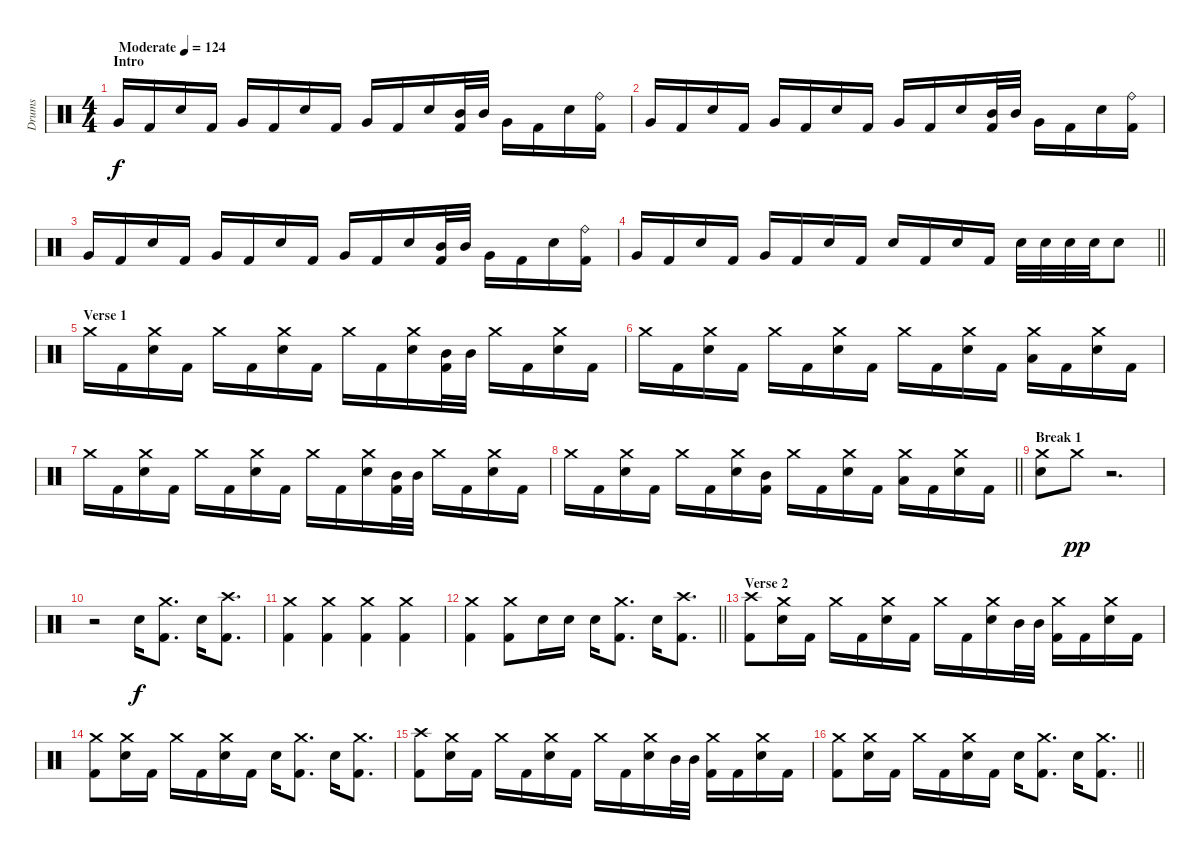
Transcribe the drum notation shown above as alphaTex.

\track ("Drums" "Drums") {instrument percussion}
\staff {score}
\articulation defaults
\ts (4 4)
\section ("" "Intro")
\tempo (124 "Moderate")
\clef neutral
\ks c "Very Low Tom (hit)".16{dy f} "Kick (hit) 2".16 "Electric Snare (hit)".16 "Kick (hit) 2".16 "Very Low Tom (hit)".16 "Kick (hit) 2".16 "Electric Snare (hit)".16 "Kick (hit) 2".16 "Very Low Tom (hit)".16 "Kick (hit) 2".16 "Electric Snare (hit)".16
("Mid Tom (hit)" "Kick (hit) 2").32 "Mid Tom (hit)".32 "Very Low Tom (hit)".16 "Kick (hit) 2".16 "Electric Snare (hit)".16 ("Ride (bell)" "Kick (hit) 2").16 |
"Very Low Tom (hit)".16 "Kick (hit) 2".16 "Electric Snare (hit)".16 "Kick (hit) 2".16 "Very Low Tom (hit)".16 "Kick (hit) 2".16 "Electric Snare (hit)".16 "Kick (hit) 2".16 "Very Low Tom (hit)".16 "Kick (hit) 2".16 "Electric Snare (hit)".16 ("Mid Tom (hit)" "Kick (hit) 2").32 "Mid Tom (hit)".32 "Very Low Tom (hit)".16 "Kick (hit) 2".16 "Electric Snare (hit)".16 ("Ride (bell)" "Kick (hit) 2").16 |
"Very Low Tom (hit)".16 "Kick (hit) 2".16 "Electric Snare (hit)".16 "Kick (hit) 2".16 "Very Low Tom (hit)".16 "Kick (hit) 2".16 "Electric Snare (hit)".16 "Kick (hit) 2".16 "Very Low Tom (hit)".16 "Kick (hit) 2".16 "Electric Snare (hit)".16 ("Mid Tom (hit)" "Kick (hit) 2").32 "Mid Tom (hit)".32 "Very Low Tom (hit)".16 "Kick (hit) 2".16 "Electric Snare (hit)".16 ("Ride (bell)" "Kick (hit) 2").16 |
\barLineRight lightlight "Very Low Tom (hit)".16 "Kick (hit) 2".16 "Electric Snare (hit)".16 "Kick (hit) 2".16 "Very Low Tom (hit)".16 "Kick (hit) 2".16 "Electric Snare (hit)".16 "Kick (hit) 2".16 "Electric Snare (hit)".16 "Kick (hit) 2".16 "Electric Snare (hit)".16 "Kick (hit) 2".16 "Electric Snare (hit)".32 "Electric Snare (hit)".32 "Electric Snare (hit)".32 "Electric Snare (hit)".32 "Electric Snare (hit)".8
|
\section ("" "Verse 1")
"Crash medium (hit)".16 "Kick (hit) 2".16 ("Crash medium (hit)" "Electric Snare (hit)").16 "Kick (hit) 2".16 "Crash medium (hit)".16 "Kick (hit) 2".16 ("Crash medium (hit)" "Electric Snare (hit)").16 "Kick (hit) 2".16 "Crash medium (hit)".16 "Kick (hit) 2".16 ("Crash medium (hit)" "Electric Snare (hit)").16 ("Mid Tom (hit)" "Kick (hit) 2").32 "Mid Tom (hit)".32 "Crash medium (hit)".16 "Kick (hit) 2".16 ("Crash medium (hit)" "Electric Snare (hit)").16 "Kick (hit) 2".16 |
"Crash medium (hit)".16 "Kick (hit) 2".16 ("Crash medium (hit)" "Electric Snare (hit)").16 "Kick (hit) 2".16 "Crash medium (hit)".16 "Kick (hit) 2".16 ("Crash medium (hit)" "Electric Snare (hit)").16 "Kick (hit) 2".16 "Crash medium (hit)".16 "Kick (hit) 2".16 ("Crash medium (hit)" "Electric Snare (hit)").16 "Kick (hit) 2".16 ("Crash medium (hit)" "Low Tom (hit)").16 "Kick (hit) 2".16 ("Crash medium (hit)" "Electric Snare (hit)").16 "Kick (hit) 2".16 |
"Crash medium (hit)".16 "Kick (hit) 2".16 ("Crash medium (hit)" "Electric Snare (hit)").16 "Kick (hit) 2".16 "Crash medium (hit)".16 "Kick (hit) 2".16 ("Crash medium (hit)" "Electric Snare (hit)").16 "Kick (hit) 2".16 "Crash medium (hit)".16 "Kick (hit) 2".16 ("Crash medium (hit)" "Electric Snare (hit)").16 ("Mid Tom (hit)" "Kick (hit) 2").32 "Mid Tom (hit)".32 "Crash medium (hit)".16 "Kick (hit) 2".16 ("Crash medium (hit)" "Electric Snare (hit)").16 "Kick (hit) 2".16 |
\barLineRight lightlight "Crash medium (hit)".16 "Kick (hit) 2".16
("Crash medium (hit)" "Electric Snare (hit)").16 "Kick (hit) 2".16 "Crash medium (hit)".16 "Kick (hit) 2".16 ("Crash medium (hit)" "Electric Snare (hit)").16 ("Mid Tom (hit)" "Kick (hit) 2").16 "Crash medium (hit)".16 "Kick (hit) 2".16 ("Crash medium (hit)" "Electric Snare (hit)").16 "Kick (hit) 2".16 ("Crash medium (hit)" "Low Tom (hit)").16 "Kick (hit) 2".16 ("Crash medium (hit)" "Electric Snare (hit)").16 "Kick (hit) 2".16 |
\section ("" "Break 1")
("Crash medium (hit)" "Electric Snare (hit)").8 "Crash medium (hit)".8{dy pp} r.2{d} |
r.2 "Electric Snare (hit)".16{dy f} ("Crash medium (hit)" "Kick (hit) 2").8{d} "Electric Snare (hit)".16 ("Crash high (hit)" "Kick (hit) 2").8{d} |
("Crash medium (hit)" "Kick (hit) 2").4 ("Crash medium (hit)" "Kick (hit) 2").4 ("Crash medium (hit)" "Kick (hit) 2").4 ("Crash medium (hit)" "Kick (hit) 2").4 |
\barLineRight lightlight
("Crash medium (hit)" "Kick (hit) 2").4 ("Crash medium (hit)" "Kick (hit) 2").8 "Electric Snare (hit)".16 "Electric Snare (hit)".16 "Electric Snare (hit)".16 ("Crash medium (hit)" "Kick (hit) 2").8{d} "Electric Snare (hit)".16 ("Crash high (hit)" "Kick (hit) 2").8{d} |
\section ("" "Verse 2")
("Crash high (hit)" "Kick (hit) 2").8 ("Crash medium (hit)" "Electric Snare (hit)").16 "Kick (hit) 2".16 "Crash medium (hit)".16 "Kick (hit) 2".16 ("Crash medium (hit)" "Electric Snare (hit)").16 "Kick (hit) 2".16 "Crash medium (hit)".16 "Kick (hit) 2".16 ("Crash medium (hit)" "Electric Snare (hit)").16 "Mid Tom (hit)".32 "Mid Tom (hit)".32 ("Crash medium (hit)" "Kick (hit) 2").16 "Kick (hit) 2".16 ("Crash medium (hit)" "Electric Snare (hit)").16 "Kick (hit) 2".16 |
("Crash medium (hit)" "Kick (hit) 2").8 ("Crash medium (hit)" "Electric Snare (hit)").16 "Kick (hit) 2".16 "Crash medium (hit)".16 "Kick (hit) 2".16 ("Crash medium (hit)" "Electric Snare (hit)").16 "Kick (hit) 2".16 "Electric Snare (hit)".16 ("Crash medium (hit)" "Kick (hit) 2").8{d} "Electric Snare (hit)".16 ("Crash medium (hit)" "Kick (hit) 2").8{d} |
("Crash high (hit)" "Kick (hit) 2").8 ("Crash medium (hit)" "Electric Snare (hit)").16 "Kick (hit) 2".16 "Crash medium (hit)".16 "Kick (hit) 2".16 ("Crash medium (hit)" "Electric Snare (hit)").16 "Kick (hit) 2".16 "Crash medium (hit)".16 "Kick (hit) 2".16 ("Crash medium (hit)" "Electric Snare (hit)").16 "Mid Tom (hit)".32 "Mid Tom (hit)".32 ("Crash medium (hit)" "Kick (hit) 2").16 "Kick (hit) 2".16 ("Crash medium (hit)" "Electric Snare (hit)").16 "Kick (hit) 2".16 |
\barLineRight lightlight
("Crash medium (hit)" "Kick (hit) 2").8 ("Crash medium (hit)" "Electric Snare (hit)").16 "Kick (hit) 2".16 "Crash medium (hit)".16 "Kick (hit) 2".16 ("Crash medium (hit)" "Electric Snare (hit)").16 "Kick (hit) 2".16 "Electric Snare (hit)".16 ("Crash medium (hit)" "Kick (hit) 2").8{d} "Electric Snare (hit)".16 ("Crash medium (hit)" "Kick (hit) 2").8{d}
